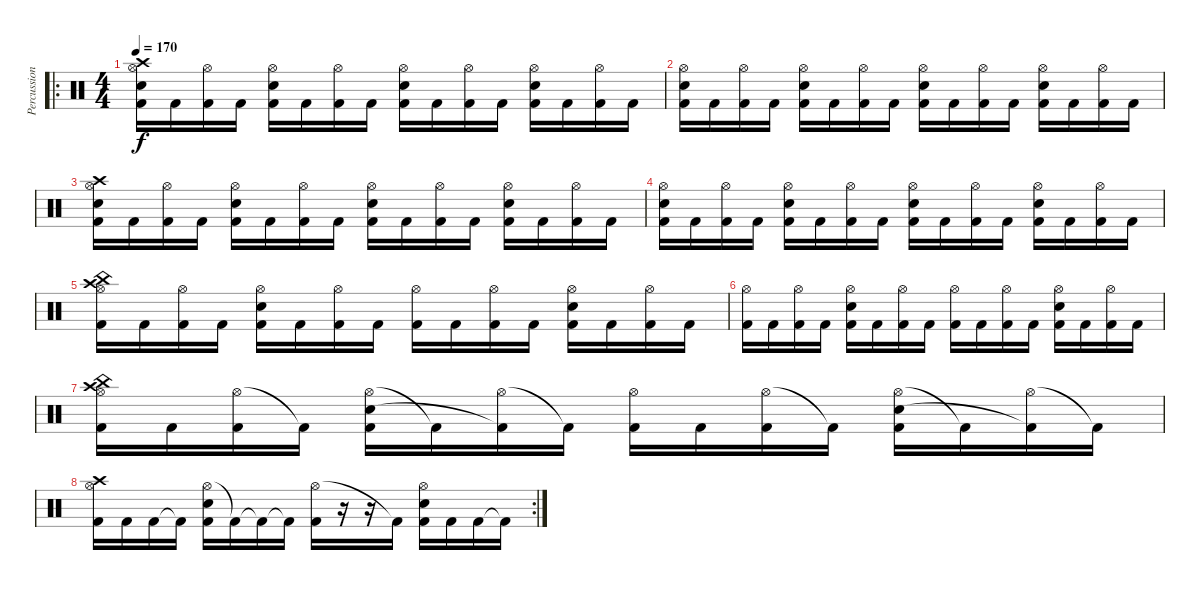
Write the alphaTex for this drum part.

\track ("Percussions" "Percussion") {instrument percussion}
\staff {score}
\articulation defaults
\ro
\ts (4 4)
\tempo 170
\clef neutral
\ks c
("Hi-Hat (open)" "Crash high (hit)" "Snare (hit) 2" "Kick (hit) 2").16{dy f} "Kick (hit) 2".16 ("Hi-Hat (open)" "Kick (hit) 2").16 "Kick (hit) 2".16 ("Hi-Hat (open)" "Snare (hit) 2" "Kick (hit) 2").16 "Kick (hit) 2".16 ("Hi-Hat (open)" "Kick (hit) 2").16 "Kick (hit) 2".16 ("Hi-Hat (open)" "Snare (hit) 2" "Kick (hit) 2").16 "Kick (hit) 2".16 ("Hi-Hat (open)" "Kick (hit) 2").16 "Kick (hit) 2".16 ("Hi-Hat (open)" "Snare (hit) 2" "Kick (hit) 2").16 "Kick (hit) 2".16 ("Hi-Hat (open)" "Kick (hit) 2").16 "Kick (hit) 2".16 |
("Hi-Hat (open)" "Snare (hit) 2" "Kick (hit) 2").16 "Kick (hit) 2".16 ("Hi-Hat (open)" "Kick (hit) 2").16 "Kick (hit) 2".16 ("Hi-Hat (open)" "Snare (hit) 2" "Kick (hit) 2").16 "Kick (hit) 2".16 ("Hi-Hat (open)" "Kick (hit) 2").16 "Kick (hit) 2".16 ("Hi-Hat (open)" "Snare (hit) 2" "Kick (hit) 2").16 "Kick (hit) 2".16 ("Hi-Hat (open)" "Kick (hit) 2").16 "Kick (hit) 2".16 ("Hi-Hat (open)" "Snare (hit) 2" "Kick (hit) 2").16 "Kick (hit) 2".16 ("Hi-Hat (open)" "Kick (hit) 2").16 "Kick (hit) 2".16 |
("Hi-Hat (open)" "Crash high (hit)" "Snare (hit) 2" "Kick (hit) 2").16 "Kick (hit) 2".16 ("Hi-Hat (open)" "Kick (hit) 2").16 "Kick (hit) 2".16 ("Hi-Hat (open)" "Snare (hit) 2" "Kick (hit) 2").16 "Kick (hit) 2".16 ("Hi-Hat (open)" "Kick (hit) 2").16 "Kick (hit) 2".16 ("Hi-Hat (open)" "Snare (hit) 2" "Kick (hit) 2").16 "Kick (hit) 2".16 ("Hi-Hat (open)" "Kick (hit) 2").16 "Kick (hit) 2".16 ("Hi-Hat (open)" "Snare (hit) 2" "Kick (hit) 2").16 "Kick (hit) 2".16 ("Hi-Hat (open)" "Kick (hit) 2").16 "Kick (hit) 2".16 |
("Hi-Hat (open)" "Snare (hit) 2" "Kick (hit) 2").16 "Kick (hit) 2".16 ("Hi-Hat (open)" "Kick (hit) 2").16 "Kick (hit) 2".16 ("Hi-Hat (open)" "Snare (hit) 2" "Kick (hit) 2").16 "Kick (hit) 2".16 ("Hi-Hat (open)" "Kick (hit) 2").16 "Kick (hit) 2".16 ("Hi-Hat (open)" "Snare (hit) 2" "Kick (hit) 2").16 "Kick (hit) 2".16 ("Hi-Hat (open)" "Kick (hit) 2").16 "Kick (hit) 2".16 ("Hi-Hat (open)" "Snare (hit) 2" "Kick (hit) 2").16 "Kick (hit) 2".16 ("Hi-Hat (open)" "Kick (hit) 2").16 "Kick (hit) 2".16 |
("Hi-Hat (open)" "Crash high (hit)" "China (hit)" "Kick (hit) 2").16 "Kick (hit) 2".16 ("Hi-Hat (open)" "Kick (hit) 2").16 "Kick (hit) 2".16 ("Hi-Hat (open)" "Snare (hit) 2" "Kick (hit) 2").16 "Kick (hit) 2".16 ("Hi-Hat (open)" "Kick (hit) 2").16 "Kick (hit) 2".16 ("Hi-Hat (open)" "Kick (hit) 2").16 "Kick (hit) 2".16 ("Hi-Hat (open)" "Kick (hit) 2").16 "Kick (hit) 2".16 ("Hi-Hat (open)" "Snare (hit) 2" "Kick (hit) 2").16 "Kick (hit) 2".16 ("Hi-Hat (open)" "Kick (hit) 2").16 "Kick (hit) 2".16 |
("Hi-Hat (open)" "Kick (hit) 2").16 "Kick (hit) 2".16 ("Hi-Hat (open)" "Kick (hit) 2").16 "Kick (hit) 2".16 ("Hi-Hat (open)" "Snare (hit) 2" "Kick (hit) 2").16 "Kick (hit) 2".16 ("Hi-Hat (open)" "Kick (hit) 2").16 "Kick (hit) 2".16 ("Hi-Hat (open)" "Kick (hit) 2").16 "Kick (hit) 2".16 ("Hi-Hat (open)" "Kick (hit) 2").16 "Kick (hit) 2".16 ("Hi-Hat (open)" "Snare (hit) 2" "Kick (hit) 2").16 "Kick (hit) 2".16 ("Hi-Hat (open)" "Kick (hit) 2").16 "Kick (hit) 2".16 |
("Hi-Hat (open)" "Crash high (hit)" "China (hit)" "Kick (hit) 2").16 "Kick (hit) 2".16 ("Hi-Hat (open)" "Kick (hit) 2").16 "Kick (hit) 2"{t}.16 ("Hi-Hat (open)" "Snare (hit) 2" "Kick (hit) 2").16 "Kick (hit) 2"{t}.16 ("Hi-Hat (open)" "Kick (hit) 2"{t}).16 "Kick (hit) 2"{t}.16 ("Hi-Hat (open)" "Kick (hit) 2").16 "Kick (hit) 2".16 ("Hi-Hat (open)" "Kick (hit) 2").16 "Kick (hit) 2"{t}.16 ("Hi-Hat (open)" "Snare (hit) 2" "Kick (hit) 2").16 "Kick (hit) 2"{t}.16 ("Hi-Hat (open)" "Kick (hit) 2"{t}).16 "Kick (hit) 2"{t}.16 |
\rc 2
("Hi-Hat (open)" "Crash high (hit)" "Kick (hit) 2").16 "Kick (hit) 2".16 "Kick (hit) 2".16 "Kick (hit) 2"{t}.16 ("Hi-Hat (open)" "Snare (hit) 2" "Kick (hit) 2").16 "Kick (hit) 2"{t}.16 "Kick (hit) 2"{t}.16 "Kick (hit) 2"{t}.16 ("Hi-Hat (open)" "Kick (hit) 2").16 r.16 r.16 "Kick (hit) 2"{t}.16 ("Hi-Hat (open)" "Snare (hit) 2" "Kick (hit) 2").16 "Kick (hit) 2".16 "Kick (hit) 2".16 "Kick (hit) 2"{t}.16
